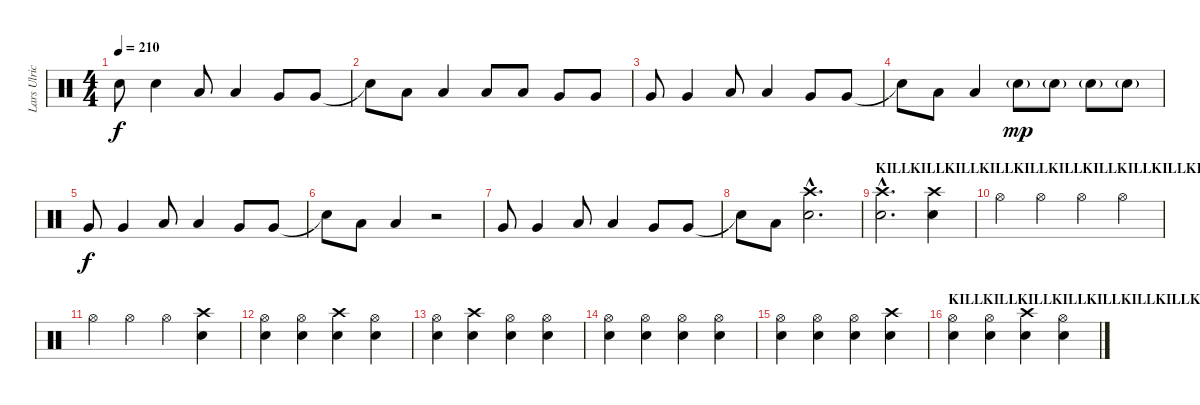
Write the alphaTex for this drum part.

\track ("Lars Ulrich" "Lars Ulric") {instrument percussion}
\staff {score}
\articulation defaults
\ts (4 4)
\tempo 210
\clef neutral
\ks c "Snare (hit) 2".8{dy f} "Snare (hit) 2".4 "Low Tom (hit)".8 "Low Tom (hit)".4 "Very Low Tom (hit)".8 "Very Low Tom (hit)".8
|
"Snare (hit)"{t}.8 "Low Floor Tom (hit)".8 "Low Floor Tom (hit)".4 "Low Tom (hit)".8 "Low Tom (hit)".8 "Very Low Tom (hit)".8 "Very Low Tom (hit)".8 |
"Very Low Tom (hit)".8 "Very Low Tom (hit)".4 "Low Tom (hit)".8 "Low Tom (hit)".4 "Very Low Tom (hit)".8 "Very Low Tom (hit)".8 |
"Snare (hit)"{t}.8 "Low Floor Tom (hit)".8 "Low Floor Tom (hit)".4 "Electric Snare (hit)"{g}.8{dy mp} "Electric Snare (hit)"{g}.8 "Electric Snare (hit)"{g}.8 "Electric Snare (hit)"{g}.8 |
"Very Low Tom (hit)".8{dy f} "Very Low Tom (hit)".4 "Low Tom (hit)".8 "Low Tom (hit)".4 "Very Low Tom (hit)".8 "Very Low Tom (hit)".8 |
"Snare (hit)"{t}.8 "Low Floor Tom (hit)".8 "Low Floor Tom (hit)".4 r.2 |
"Very Low Tom (hit)".8 "Very Low Tom (hit)".4 "Low Tom (hit)".8 "Low Tom (hit)".4 "Very Low Tom (hit)".8 "Very Low Tom (hit)".8 |
"Snare (hit)"{t}.8 "Low Floor Tom (hit)".8 ("Crash high (hit)"{hac} "Snare (hit) 2"{hac}).2{d} |
\section ("" "KILLKILLKILLKILLKILLKILLKILLKILLKILLKILLKILLKILLKILLKILLKILLKILLKILLKILLKILLKILLKILLKILLKILLKILLKILL")
("Crash high (hit)"{hac} "Snare (hit) 2"{hac}).2{d} ("Snare (hit) 2" "Crash high (hit)").4 |
"Hi-Hat (open)".4 "Hi-Hat (open)".4 "Hi-Hat (open)".4 "Hi-Hat (open)".4 |
"Hi-Hat (open)".4 "Hi-Hat (open)".4 "Hi-Hat (open)".4 ("Crash high (hit)" "Snare (hit) 2").4 |
("Hi-Hat (open)" "Snare (hit) 2").4 ("Hi-Hat (open)" "Snare (hit) 2").4 ("Crash high (hit)" "Snare (hit) 2").4 ("Hi-Hat (open)" "Snare (hit) 2").4 |
("Hi-Hat (open)" "Snare (hit) 2").4 ("Crash high (hit)" "Snare (hit) 2").4 ("Hi-Hat (open)" "Snare (hit) 2").4 ("Hi-Hat (open)" "Snare (hit) 2").4 |
("Hi-Hat (open)" "Snare (hit) 2").4 ("Hi-Hat (open)" "Snare (hit) 2").4 ("Hi-Hat (open)" "Snare (hit) 2").4 ("Hi-Hat (open)" "Snare (hit) 2").4 |
("Hi-Hat (open)" "Snare (hit) 2").4 ("Hi-Hat (open)" "Snare (hit) 2").4 ("Hi-Hat (open)" "Snare (hit) 2").4 ("Crash high (hit)" "Snare (hit) 2").4 |
\section ("" "KILLKILLKILLKILLKILLKILLKILLKILLKILLKILLKILLKILLKILLKILLKILLKILLKILLKILL")
("Hi-Hat (open)" "Snare (hit) 2").4 ("Hi-Hat (open)" "Snare (hit) 2").4 ("Crash high (hit)" "Snare (hit) 2").4 ("Hi-Hat (open)" "Snare (hit) 2").4
